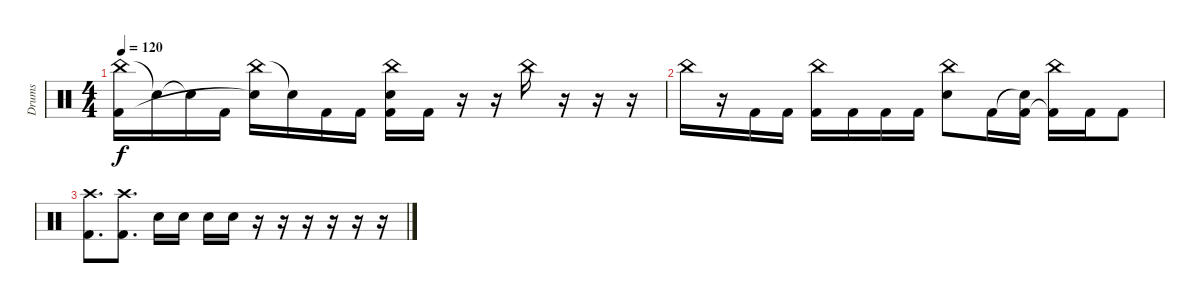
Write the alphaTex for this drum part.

\track ("Drums" "Drums") {instrument percussion}
\staff {score}
\articulation defaults
\ts (4 4)
\tempo 120
\clef neutral
\ks c
("China (hit)" "Kick (hit) 2").16{dy f} "Snare (hit)"{t}.16 "Snare (hit)"{t}.16 "Kick (hit) 2".16 ("China (hit)" "Snare (hit)"{t}).16 "Snare (hit)"{t}.16 "Kick (hit) 2".16 "Kick (hit) 2".16 ("China (hit)" "Electric Snare (hit)" "Kick (hit) 2").16 "Kick (hit) 2".16 r.16 r.16 "China (hit)".16 r.16 r.16 r.16 |
"China (hit)".16 r.16 "Kick (hit) 2".16 "Kick (hit) 2".16 ("China (hit)" "Kick (hit) 2").16 "Kick (hit) 2".16 "Kick (hit) 2".16 "Kick (hit) 2".16 ("China (hit)" "Electric Snare (hit)").8 "Kick (hit) 2".16 ("Snare (hit)"{t} "Kick (hit) 2").16 ("China (hit)" "Kick (hit) 2"{t}).16 "Kick (hit) 2".16 "Kick (hit) 2".8 |
("Crash high (hit)" "Kick (hit) 2").8{d} ("Crash high (hit)" "Kick (hit) 2").8{d} "Electric Snare (hit)".16 "Electric Snare (hit)".16 "Electric Snare (hit)".16 "Electric Snare (hit)".16 r.16 r.16 r.16 r.16 r.16 r.16
